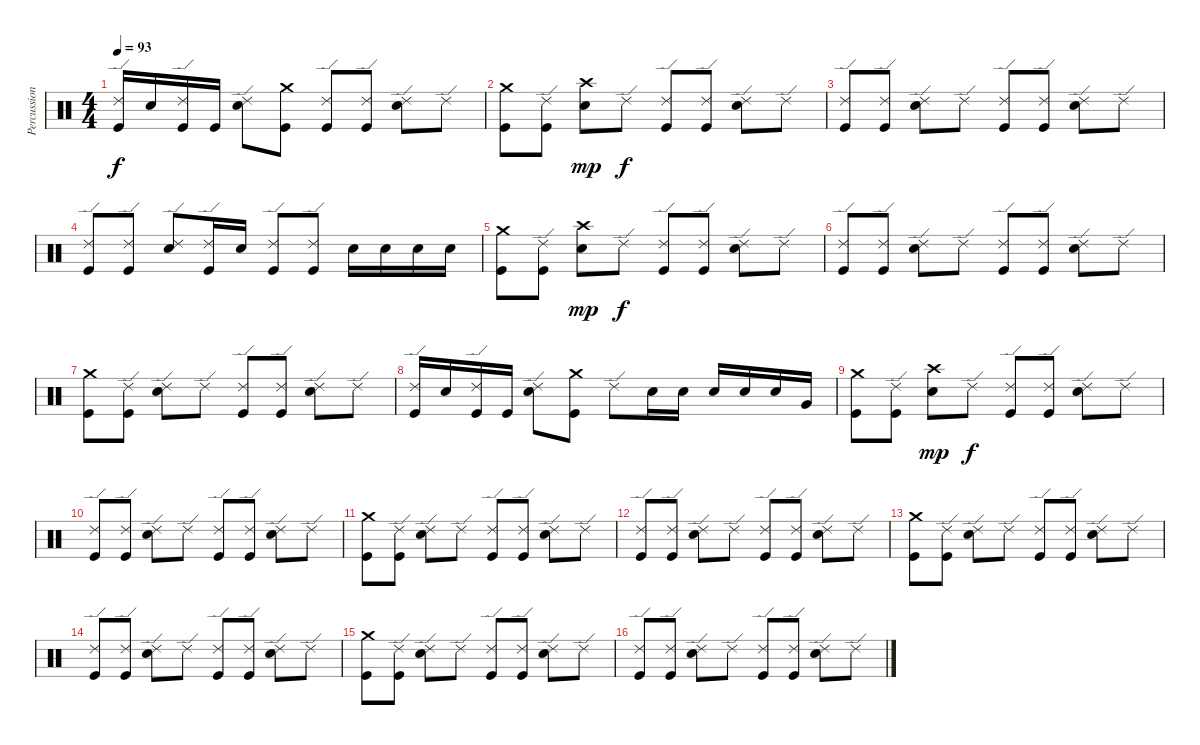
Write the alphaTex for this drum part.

\track ("Percussions" "Percussion") {instrument percussion}
\staff {score}
\articulation defaults
\ts (4 4)
\tempo 93
\clef neutral
\ks c
("Ride (edge) 2" "Kick (hit)").16{dy f} "Electric Snare (hit)".16 ("Ride (edge) 2" "Kick (hit)").16 "Kick (hit)".16 ("Ride (edge) 2" "Electric Snare (hit)").8 ("Crash medium (hit)" "Kick (hit)").8 ("Ride (edge) 2" "Kick (hit)").8 ("Ride (edge) 2" "Kick (hit)").8 ("Ride (edge) 2" "Electric Snare (hit)").8 "Ride (edge) 2".8 |
("Crash medium (hit)" "Kick (hit)").8 ("Ride (edge) 2" "Kick (hit)").8 ("Crash high (hit)" "Electric Snare (hit)").8{dy mp} "Ride (edge) 2".8{dy f} ("Ride (edge) 2" "Kick (hit)").8 ("Ride (edge) 2" "Kick (hit)").8 ("Ride (edge) 2" "Electric Snare (hit)").8 "Ride (edge) 2".8 |
("Ride (edge) 2" "Kick (hit)").8 ("Ride (edge) 2" "Kick (hit)").8 ("Ride (edge) 2" "Electric Snare (hit)").8 "Ride (edge) 2".8 ("Ride (edge) 2" "Kick (hit)").8 ("Ride (edge) 2" "Kick (hit)").8 ("Ride (edge) 2" "Electric Snare (hit)").8 "Ride (edge) 2".8 |
("Ride (edge) 2" "Kick (hit)").8 ("Ride (edge) 2" "Kick (hit)").8 ("Ride (edge) 2" "Electric Snare (hit)").8 ("Ride (edge) 2" "Kick (hit)").16 "Electric Snare (hit)".16 ("Ride (edge) 2" "Kick (hit)").8 ("Ride (edge) 2" "Kick (hit)").8 "Electric Snare (hit)".16 "Electric Snare (hit)".16 "Snare (hit) 2".16 "Electric Snare (hit)".16 |
("Crash medium (hit)" "Kick (hit)").8 ("Ride (edge) 2" "Kick (hit)").8 ("Crash high (hit)" "Electric Snare (hit)").8{dy mp} "Ride (edge) 2".8{dy f} ("Ride (edge) 2" "Kick (hit)").8 ("Ride (edge) 2" "Kick (hit)").8 ("Ride (edge) 2" "Electric Snare (hit)").8 "Ride (edge) 2".8 |
("Ride (edge) 2" "Kick (hit)").8 ("Ride (edge) 2" "Kick (hit)").8 ("Ride (edge) 2" "Electric Snare (hit)").8 "Ride (edge) 2".8 ("Ride (edge) 2" "Kick (hit)").8 ("Ride (edge) 2" "Kick (hit)").8 ("Ride (edge) 2" "Electric Snare (hit)").8 "Ride (edge) 2".8 |
("Crash medium (hit)" "Kick (hit)").8 ("Ride (edge) 2" "Kick (hit)").8 ("Ride (edge) 2" "Electric Snare (hit)").8 "Ride (edge) 2".8 ("Ride (edge) 2" "Kick (hit)").8 ("Ride (edge) 2" "Kick (hit)").8 ("Ride (edge) 2" "Electric Snare (hit)").8 "Ride (edge) 2".8 |
("Ride (edge) 2" "Kick (hit)").16 "Electric Snare (hit)".16 ("Ride (edge) 2" "Kick (hit)").16 "Kick (hit)".16 ("Ride (edge) 2" "Electric Snare (hit)").8 ("Crash medium (hit)" "Kick (hit)").8 "Ride (edge) 2".8 "Snare (hit) 2".16 "Snare (hit) 2".16 "Electric Snare (hit)".16 "Electric Snare (hit)".16 "Electric Snare (hit)".16 "Very Low Tom (hit)".16 |
("Crash medium (hit)" "Kick (hit)").8 ("Ride (edge) 2" "Kick (hit)").8 ("Crash high (hit)" "Electric Snare (hit)").8{dy mp} "Ride (edge) 2".8{dy f} ("Ride (edge) 2" "Kick (hit)").8 ("Ride (edge) 2" "Kick (hit)").8 ("Ride (edge) 2" "Electric Snare (hit)").8 "Ride (edge) 2".8 |
("Ride (edge) 2" "Kick (hit)").8 ("Ride (edge) 2" "Kick (hit)").8 ("Ride (edge) 2" "Electric Snare (hit)").8 "Ride (edge) 2".8 ("Ride (edge) 2" "Kick (hit)").8 ("Ride (edge) 2" "Kick (hit)").8 ("Ride (edge) 2" "Electric Snare (hit)").8 "Ride (edge) 2".8 |
("Crash medium (hit)" "Kick (hit)").8 ("Ride (edge) 2" "Kick (hit)").8 ("Ride (edge) 2" "Electric Snare (hit)").8 "Ride (edge) 2".8 ("Ride (edge) 2" "Kick (hit)").8 ("Ride (edge) 2" "Kick (hit)").8 ("Ride (edge) 2" "Electric Snare (hit)").8 "Ride (edge) 2".8 |
("Ride (edge) 2" "Kick (hit)").8 ("Ride (edge) 2" "Kick (hit)").8 ("Ride (edge) 2" "Electric Snare (hit)").8 "Ride (edge) 2".8 ("Ride (edge) 2" "Kick (hit)").8 ("Ride (edge) 2" "Kick (hit)").8 ("Ride (edge) 2" "Electric Snare (hit)").8 "Ride (edge) 2".8 |
("Crash medium (hit)" "Kick (hit)").8 ("Ride (edge) 2" "Kick (hit)").8 ("Ride (edge) 2" "Electric Snare (hit)").8 "Ride (edge) 2".8 ("Ride (edge) 2" "Kick (hit)").8 ("Ride (edge) 2" "Kick (hit)").8 ("Ride (edge) 2" "Electric Snare (hit)").8 "Ride (edge) 2".8 |
("Ride (edge) 2" "Kick (hit)").8 ("Ride (edge) 2" "Kick (hit)").8 ("Ride (edge) 2" "Electric Snare (hit)").8 "Ride (edge) 2".8 ("Ride (edge) 2" "Kick (hit)").8 ("Ride (edge) 2" "Kick (hit)").8 ("Ride (edge) 2" "Electric Snare (hit)").8 "Ride (edge) 2".8 |
("Crash medium (hit)" "Kick (hit)").8 ("Ride (edge) 2" "Kick (hit)").8 ("Ride (edge) 2" "Electric Snare (hit)").8 "Ride (edge) 2".8 ("Ride (edge) 2" "Kick (hit)").8 ("Ride (edge) 2" "Kick (hit)").8 ("Ride (edge) 2" "Electric Snare (hit)").8 "Ride (edge) 2".8 |
("Ride (edge) 2" "Kick (hit)").8 ("Ride (edge) 2" "Kick (hit)").8 ("Ride (edge) 2" "Electric Snare (hit)").8 "Ride (edge) 2".8 ("Ride (edge) 2" "Kick (hit)").8 ("Ride (edge) 2" "Kick (hit)").8 ("Ride (edge) 2" "Electric Snare (hit)").8 "Ride (edge) 2".8
